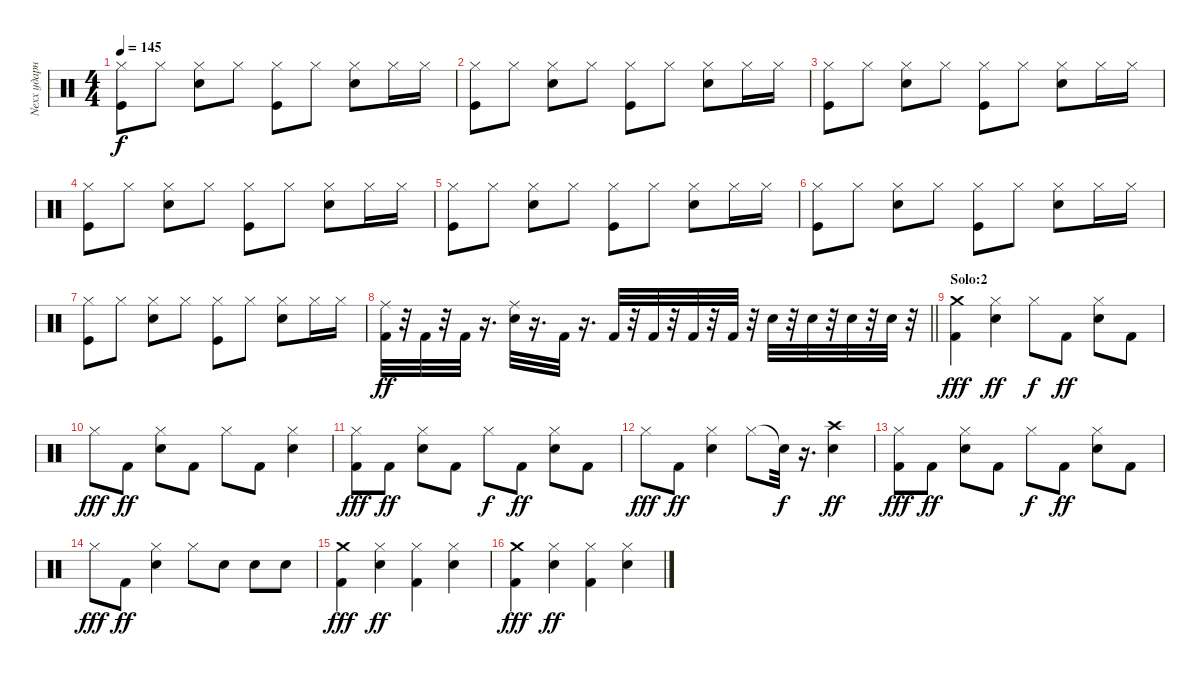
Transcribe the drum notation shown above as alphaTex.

\track ("Nexx ударные" "Nexx ударн") {instrument percussion}
\staff {score}
\articulation defaults
\ts (4 4)
\tempo 145
\clef neutral
\ks c
("Hi-Hat (closed)" "Kick (hit)").8{dy f} "Hi-Hat (closed)".8 ("Snare (hit) 2" "Hi-Hat (closed)").8 "Hi-Hat (closed)".8 ("Kick (hit)" "Hi-Hat (closed)").8 "Hi-Hat (closed)".8 ("Snare (hit) 2" "Hi-Hat (closed)").8 "Hi-Hat (closed)".16 "Hi-Hat (closed)".16 |
("Hi-Hat (closed)" "Kick (hit)").8 "Hi-Hat (closed)".8 ("Snare (hit) 2" "Hi-Hat (closed)").8 "Hi-Hat (closed)".8 ("Kick (hit)" "Hi-Hat (closed)").8 "Hi-Hat (closed)".8 ("Snare (hit) 2" "Hi-Hat (closed)").8 "Hi-Hat (closed)".16 "Hi-Hat (closed)".16 |
("Hi-Hat (closed)" "Kick (hit)").8 "Hi-Hat (closed)".8 ("Snare (hit) 2" "Hi-Hat (closed)").8 "Hi-Hat (closed)".8 ("Kick (hit)" "Hi-Hat (closed)").8 "Hi-Hat (closed)".8 ("Snare (hit) 2" "Hi-Hat (closed)").8 "Hi-Hat (closed)".16 "Hi-Hat (closed)".16 |
("Hi-Hat (closed)" "Kick (hit)").8 "Hi-Hat (closed)".8 ("Snare (hit) 2" "Hi-Hat (closed)").8 "Hi-Hat (closed)".8 ("Kick (hit)" "Hi-Hat (closed)").8 "Hi-Hat (closed)".8 ("Snare (hit) 2" "Hi-Hat (closed)").8 "Hi-Hat (closed)".16 "Hi-Hat (closed)".16 |
("Hi-Hat (closed)" "Kick (hit)").8 "Hi-Hat (closed)".8 ("Snare (hit) 2" "Hi-Hat (closed)").8 "Hi-Hat (closed)".8 ("Kick (hit)" "Hi-Hat (closed)").8 "Hi-Hat (closed)".8 ("Snare (hit) 2" "Hi-Hat (closed)").8 "Hi-Hat (closed)".16 "Hi-Hat (closed)".16 |
("Hi-Hat (closed)" "Kick (hit)").8 "Hi-Hat (closed)".8 ("Snare (hit) 2" "Hi-Hat (closed)").8 "Hi-Hat (closed)".8 ("Kick (hit)" "Hi-Hat (closed)").8 "Hi-Hat (closed)".8 ("Snare (hit) 2" "Hi-Hat (closed)").8 "Hi-Hat (closed)".16 "Hi-Hat (closed)".16 |
("Hi-Hat (closed)" "Kick (hit)").8 "Hi-Hat (closed)".8 ("Snare (hit) 2" "Hi-Hat (closed)").8 "Hi-Hat (closed)".8 ("Kick (hit)" "Hi-Hat (closed)").8 "Hi-Hat (closed)".8 ("Snare (hit) 2" "Hi-Hat (closed)").8 "Hi-Hat (closed)".16 "Hi-Hat (closed)".16 |
\barLineRight lightlight
("Ride (middle)" "Kick (hit) 2").32{dy ff} r.32 "Kick (hit) 2".32 r.32 "Kick (hit) 2".32 r.16{d} ("Ride (middle)" "Electric Snare (hit)").32 r.16{d} "Kick (hit) 2".32 r.16{d} "Kick (hit) 2".32 r.32 "Kick (hit) 2".32 r.32 "Kick (hit) 2".32 r.32 "Kick (hit) 2".32 r.32 "Electric Snare (hit)".32 r.32 "Electric Snare (hit)".32 r.32 "Electric Snare (hit)".32 r.32 "Electric Snare (hit)".32 r.32 |
\section ("" "Solo:2")
("Kick (hit) 2" "Crash medium (hit)").4{dy fff} ("Hi-Hat (closed)" "Electric Snare (hit)").4{dy ff} "Hi-Hat (closed)".8{dy f} "Kick (hit) 2".8{dy ff} ("Hi-Hat (closed)" "Electric Snare (hit)").8 "Kick (hit) 2".8 |
"Hi-Hat (closed)".8{dy fff} "Kick (hit) 2".8{dy ff} ("Hi-Hat (closed)" "Electric Snare (hit)").8 "Kick (hit) 2".8 "Hi-Hat (closed)".8 "Kick (hit) 2".8 ("Hi-Hat (closed)" "Electric Snare (hit)").4 |
("Kick (hit) 2" "Hi-Hat (closed)").8{dy fff} "Kick (hit) 2".8{dy ff} ("Hi-Hat (closed)" "Electric Snare (hit)").8 "Kick (hit) 2".8 "Hi-Hat (closed)".8{dy f} "Kick (hit) 2".8{dy ff} ("Hi-Hat (closed)" "Electric Snare (hit)").8 "Kick (hit) 2".8 |
"Hi-Hat (closed)".8{dy fff} "Kick (hit) 2".8{dy ff} ("Hi-Hat (closed)" "Electric Snare (hit)").4 "Hi-Hat (closed)".8 "Snare (hit)"{t}.32{dy f} r.16{d} ("Crash high (hit)" "Electric Snare (hit)").4{dy ff} |
("Kick (hit) 2" "Hi-Hat (closed)").8{dy fff} "Kick (hit) 2".8{dy ff} ("Hi-Hat (closed)" "Electric Snare (hit)").8 "Kick (hit) 2".8 "Hi-Hat (closed)".8{dy f} "Kick (hit) 2".8{dy ff} ("Hi-Hat (closed)" "Electric Snare (hit)").8 "Kick (hit) 2".8 |
"Hi-Hat (closed)".8{dy fff} "Kick (hit) 2".8{dy ff} ("Hi-Hat (closed)" "Electric Snare (hit)").4 "Hi-Hat (closed)".8 "Electric Snare (hit)".8 "Electric Snare (hit)".8 "Electric Snare (hit)".8 |
("Kick (hit) 2" "Crash medium (hit)").4{dy fff} ("Hi-Hat (closed)" "Electric Snare (hit)").4{dy ff} ("Kick (hit) 2" "Hi-Hat (closed)").4 ("Hi-Hat (closed)" "Electric Snare (hit)").4 |
("Kick (hit) 2" "Crash medium (hit)").4{dy fff} ("Hi-Hat (closed)" "Electric Snare (hit)").4{dy ff} ("Kick (hit) 2" "Hi-Hat (closed)").4 ("Hi-Hat (closed)" "Electric Snare (hit)").4
